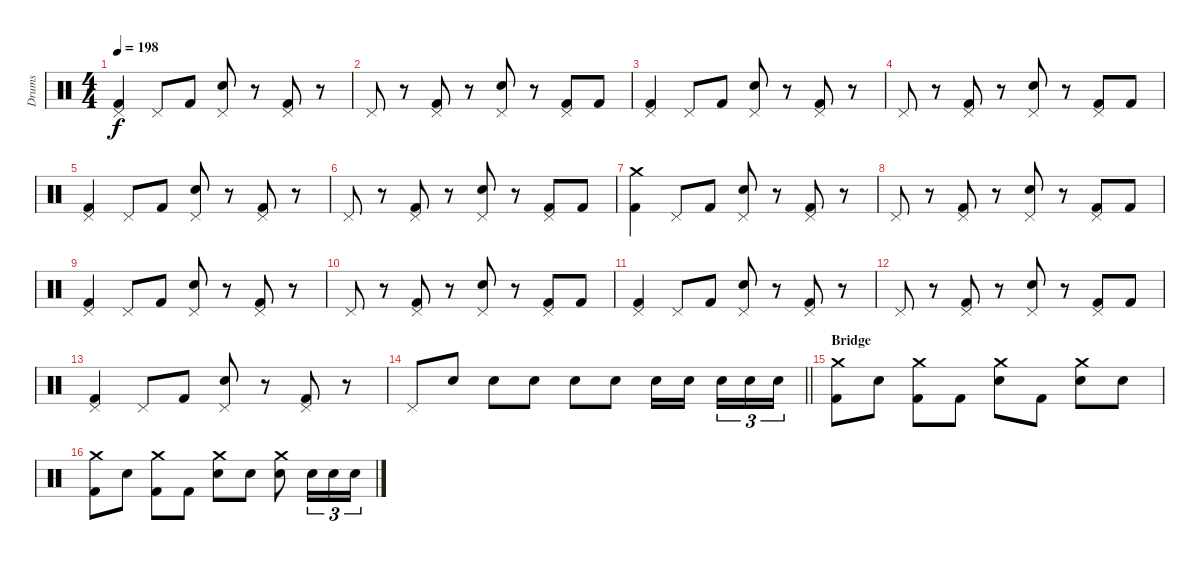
\track ("Drums" "Drums") {instrument percussion}
\staff {score}
\articulation defaults
\ts (4 4)
\tempo 198
\clef neutral
\ks c
("Pedal Hi-Hat (hit)" "Kick (hit) 2").4{dy f} "Pedal Hi-Hat (hit)".8 "Kick (hit) 2".8 ("Pedal Hi-Hat (hit)" "Electric Snare (hit)").8 r.8 ("Pedal Hi-Hat (hit)" "Kick (hit) 2").8 r.8 |
"Pedal Hi-Hat (hit)".8 r.8 ("Pedal Hi-Hat (hit)" "Kick (hit) 2").8 r.8 ("Pedal Hi-Hat (hit)" "Electric Snare (hit)").8 r.8 ("Pedal Hi-Hat (hit)" "Kick (hit) 2").8 "Kick (hit) 2".8 |
("Pedal Hi-Hat (hit)" "Kick (hit) 2").4 "Pedal Hi-Hat (hit)".8 "Kick (hit) 2".8 ("Pedal Hi-Hat (hit)" "Electric Snare (hit)").8 r.8 ("Pedal Hi-Hat (hit)" "Kick (hit) 2").8 r.8 |
"Pedal Hi-Hat (hit)".8 r.8 ("Pedal Hi-Hat (hit)" "Kick (hit) 2").8 r.8 ("Pedal Hi-Hat (hit)" "Electric Snare (hit)").8 r.8 ("Pedal Hi-Hat (hit)" "Kick (hit) 2").8 "Kick (hit) 2".8 |
("Pedal Hi-Hat (hit)" "Kick (hit) 2").4 "Pedal Hi-Hat (hit)".8 "Kick (hit) 2".8 ("Pedal Hi-Hat (hit)" "Electric Snare (hit)").8 r.8 ("Pedal Hi-Hat (hit)" "Kick (hit) 2").8 r.8 |
"Pedal Hi-Hat (hit)".8 r.8 ("Pedal Hi-Hat (hit)" "Kick (hit) 2").8 r.8 ("Pedal Hi-Hat (hit)" "Electric Snare (hit)").8 r.8 ("Pedal Hi-Hat (hit)" "Kick (hit) 2").8 "Kick (hit) 2".8 |
("Crash medium (hit)" "Kick (hit) 2").4 "Pedal Hi-Hat (hit)".8 "Kick (hit) 2".8 ("Pedal Hi-Hat (hit)" "Electric Snare (hit)").8 r.8 ("Pedal Hi-Hat (hit)" "Kick (hit) 2").8 r.8 |
"Pedal Hi-Hat (hit)".8 r.8 ("Pedal Hi-Hat (hit)" "Kick (hit) 2").8 r.8 ("Pedal Hi-Hat (hit)" "Electric Snare (hit)").8 r.8 ("Pedal Hi-Hat (hit)" "Kick (hit) 2").8 "Kick (hit) 2".8 |
("Pedal Hi-Hat (hit)" "Kick (hit) 2").4 "Pedal Hi-Hat (hit)".8 "Kick (hit) 2".8 ("Pedal Hi-Hat (hit)" "Electric Snare (hit)").8 r.8 ("Pedal Hi-Hat (hit)" "Kick (hit) 2").8 r.8 |
"Pedal Hi-Hat (hit)".8 r.8 ("Pedal Hi-Hat (hit)" "Kick (hit) 2").8 r.8 ("Pedal Hi-Hat (hit)" "Electric Snare (hit)").8 r.8 ("Pedal Hi-Hat (hit)" "Kick (hit) 2").8 "Kick (hit) 2".8 |
("Pedal Hi-Hat (hit)" "Kick (hit) 2").4 "Pedal Hi-Hat (hit)".8 "Kick (hit) 2".8 ("Pedal Hi-Hat (hit)" "Electric Snare (hit)").8 r.8 ("Pedal Hi-Hat (hit)" "Kick (hit) 2").8 r.8 |
"Pedal Hi-Hat (hit)".8 r.8 ("Pedal Hi-Hat (hit)" "Kick (hit) 2").8 r.8 ("Pedal Hi-Hat (hit)" "Electric Snare (hit)").8 r.8 ("Pedal Hi-Hat (hit)" "Kick (hit) 2").8 "Kick (hit) 2".8 |
("Pedal Hi-Hat (hit)" "Kick (hit) 2").4 "Pedal Hi-Hat (hit)".8 "Kick (hit) 2".8 ("Pedal Hi-Hat (hit)" "Electric Snare (hit)").8 r.8 ("Pedal Hi-Hat (hit)" "Kick (hit) 2").8 r.8 |
\barLineRight lightlight "Pedal Hi-Hat (hit)".8 "Electric Snare (hit)".8 "Electric Snare (hit)".8 "Electric Snare (hit)".8 "Electric Snare (hit)".8 "Electric Snare (hit)".8 "Electric Snare (hit)".16 "Electric Snare (hit)".16{beam splitsecondary} "Electric Snare (hit)".16{tu (3 2)} "Electric Snare (hit)".16{tu (3 2)} "Electric Snare (hit)".16{tu (3 2)}
|
\section ("" "Bridge")
("Crash medium (hit)" "Kick (hit) 2").8 "Electric Snare (hit)".8 ("Crash medium (hit)" "Kick (hit) 2").8 "Kick (hit) 2".8 ("Crash medium (hit)" "Electric Snare (hit)").8 "Kick (hit) 2".8 ("Crash medium (hit)" "Electric Snare (hit)").8 "Electric Snare (hit)".8 |
("Crash medium (hit)" "Kick (hit) 2").8 "Electric Snare (hit)".8 ("Crash medium (hit)" "Kick (hit) 2").8 "Kick (hit) 2".8 ("Crash medium (hit)" "Electric Snare (hit)").8 "Electric Snare (hit)".8 ("Crash medium (hit)" "Electric Snare (hit)").8 "Electric Snare (hit)".16{tu (3 2)} "Electric Snare (hit)".16{tu (3 2)} "Electric Snare (hit)".16{tu (3 2)}
